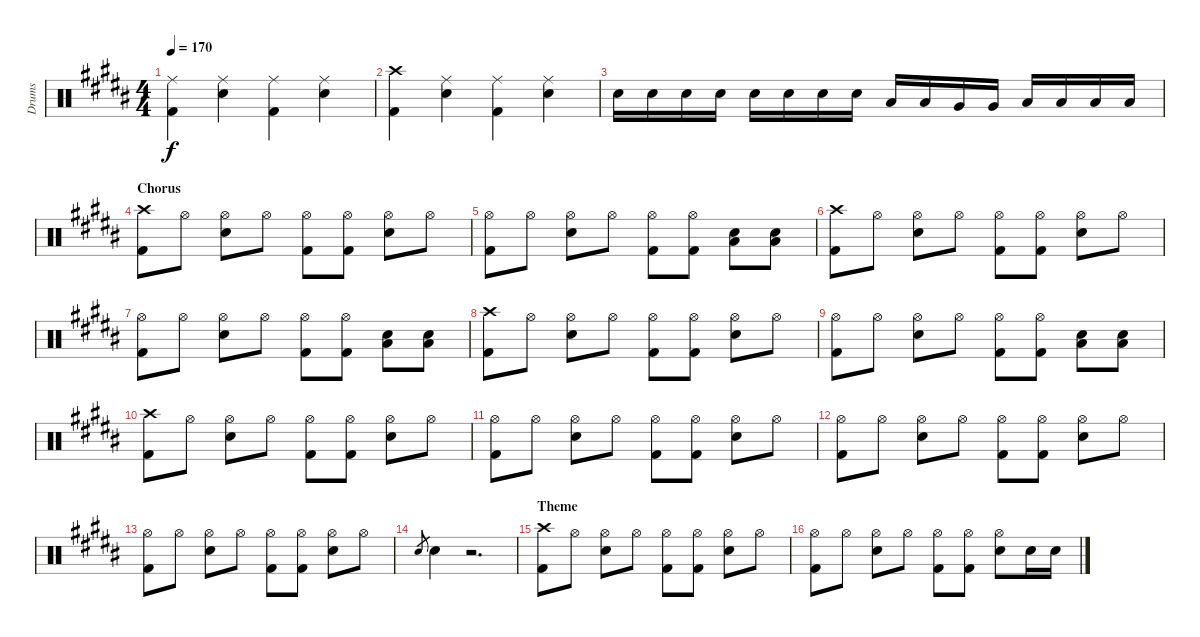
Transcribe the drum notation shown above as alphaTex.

\track ("Drums" "Drums") {instrument percussion}
\staff {score}
\articulation defaults
\ts (4 4)
\tempo 170
\clef neutral
\ks b
("Ride (middle)" "Kick (hit) 2").4{dy f} ("Ride (middle)" "Electric Snare (hit)").4 ("Ride (middle)" "Kick (hit) 2").4 ("Ride (middle)" "Electric Snare (hit)").4 |
("Crash high (hit)" "Kick (hit) 2").4 ("Ride (middle)" "Electric Snare (hit)").4 ("Ride (middle)" "Kick (hit) 2").4 ("Ride (middle)" "Electric Snare (hit)").4 |
"Electric Snare (hit)".16 "Electric Snare (hit)".16 "Electric Snare (hit)".16 "Electric Snare (hit)".16 "Electric Snare (hit)".16 "Electric Snare (hit)".16 "Electric Snare (hit)".16 "Electric Snare (hit)".16 "Low Tom (hit)".16 "Low Tom (hit)".16 "Very Low Tom (hit)".16 "Very Low Tom (hit)".16 "Low Floor Tom (hit)".16 "Low Floor Tom (hit)".16 "Low Floor Tom (hit)".16 "Low Floor Tom (hit)".16 |
\section ("" "Chorus")
("Crash high (hit)" "Kick (hit) 2").8 "Hi-Hat (open)".8 ("Hi-Hat (open)" "Electric Snare (hit)").8 "Hi-Hat (open)".8 ("Hi-Hat (open)" "Kick (hit) 2").8 ("Hi-Hat (open)" "Kick (hit) 2").8 ("Hi-Hat (open)" "Electric Snare (hit)").8 "Hi-Hat (open)".8 |
("Hi-Hat (open)" "Kick (hit) 2").8 "Hi-Hat (open)".8 ("Hi-Hat (open)" "Electric Snare (hit)").8 "Hi-Hat (open)".8 ("Hi-Hat (open)" "Kick (hit) 2").8 ("Hi-Hat (open)" "Kick (hit) 2").8 ("Low Tom (hit)" "Electric Snare (hit)").8 ("Low Tom (hit)" "Electric Snare (hit)").8 |
("Crash high (hit)" "Kick (hit) 2").8 "Hi-Hat (open)".8 ("Hi-Hat (open)" "Electric Snare (hit)").8 "Hi-Hat (open)".8 ("Hi-Hat (open)" "Kick (hit) 2").8 ("Hi-Hat (open)" "Kick (hit) 2").8 ("Hi-Hat (open)" "Electric Snare (hit)").8 "Hi-Hat (open)".8 |
("Hi-Hat (open)" "Kick (hit) 2").8 "Hi-Hat (open)".8 ("Hi-Hat (open)" "Electric Snare (hit)").8 "Hi-Hat (open)".8 ("Hi-Hat (open)" "Kick (hit) 2").8 ("Hi-Hat (open)" "Kick (hit) 2").8 ("Low Tom (hit)" "Electric Snare (hit)").8 ("Low Tom (hit)" "Electric Snare (hit)").8 |
("Crash high (hit)" "Kick (hit) 2").8 "Hi-Hat (open)".8 ("Hi-Hat (open)" "Electric Snare (hit)").8 "Hi-Hat (open)".8 ("Hi-Hat (open)" "Kick (hit) 2").8 ("Hi-Hat (open)" "Kick (hit) 2").8 ("Hi-Hat (open)" "Electric Snare (hit)").8 "Hi-Hat (open)".8 |
("Hi-Hat (open)" "Kick (hit) 2").8 "Hi-Hat (open)".8 ("Hi-Hat (open)" "Electric Snare (hit)").8 "Hi-Hat (open)".8 ("Hi-Hat (open)" "Kick (hit) 2").8 ("Hi-Hat (open)" "Kick (hit) 2").8 ("Low Tom (hit)" "Electric Snare (hit)").8 ("Low Tom (hit)" "Electric Snare (hit)").8 |
("Crash high (hit)" "Kick (hit) 2").8 "Hi-Hat (open)".8 ("Hi-Hat (open)" "Electric Snare (hit)").8 "Hi-Hat (open)".8 ("Hi-Hat (open)" "Kick (hit) 2").8 ("Hi-Hat (open)" "Kick (hit) 2").8 ("Hi-Hat (open)" "Electric Snare (hit)").8 "Hi-Hat (open)".8 |
("Hi-Hat (open)" "Kick (hit) 2").8 "Hi-Hat (open)".8 ("Hi-Hat (open)" "Electric Snare (hit)").8 "Hi-Hat (open)".8 ("Hi-Hat (open)" "Kick (hit) 2").8 ("Hi-Hat (open)" "Kick (hit) 2").8 ("Hi-Hat (open)" "Electric Snare (hit)").8 "Hi-Hat (open)".8 |
("Hi-Hat (open)" "Kick (hit) 2").8 "Hi-Hat (open)".8 ("Hi-Hat (open)" "Electric Snare (hit)").8 "Hi-Hat (open)".8 ("Hi-Hat (open)" "Kick (hit) 2").8 ("Hi-Hat (open)" "Kick (hit) 2").8 ("Hi-Hat (open)" "Electric Snare (hit)").8 "Hi-Hat (open)".8 |
("Hi-Hat (open)" "Kick (hit) 2").8 "Hi-Hat (open)".8 ("Hi-Hat (open)" "Electric Snare (hit)").8 "Hi-Hat (open)".8 ("Hi-Hat (open)" "Kick (hit) 2").8 ("Hi-Hat (open)" "Kick (hit) 2").8 ("Hi-Hat (open)" "Electric Snare (hit)").8 "Hi-Hat (open)".8 |
"Electric Snare (hit)".8{gr} "Electric Snare (hit)".4 r.2{d} |
\section ("" "Theme")
("Crash high (hit)" "Kick (hit) 2").8 "Hi-Hat (open)".8 ("Hi-Hat (open)" "Electric Snare (hit)").8 "Hi-Hat (open)".8 ("Hi-Hat (open)" "Kick (hit) 2").8 ("Hi-Hat (open)" "Kick (hit) 2").8 ("Hi-Hat (open)" "Electric Snare (hit)").8 "Hi-Hat (open)".8 |
("Hi-Hat (open)" "Kick (hit) 2").8 "Hi-Hat (open)".8 ("Hi-Hat (open)" "Electric Snare (hit)").8 "Hi-Hat (open)".8 ("Hi-Hat (open)" "Kick (hit) 2").8 ("Hi-Hat (open)" "Kick (hit) 2").8 ("Hi-Hat (open)" "Electric Snare (hit)").8 "Electric Snare (hit)".16 "Electric Snare (hit)".16
